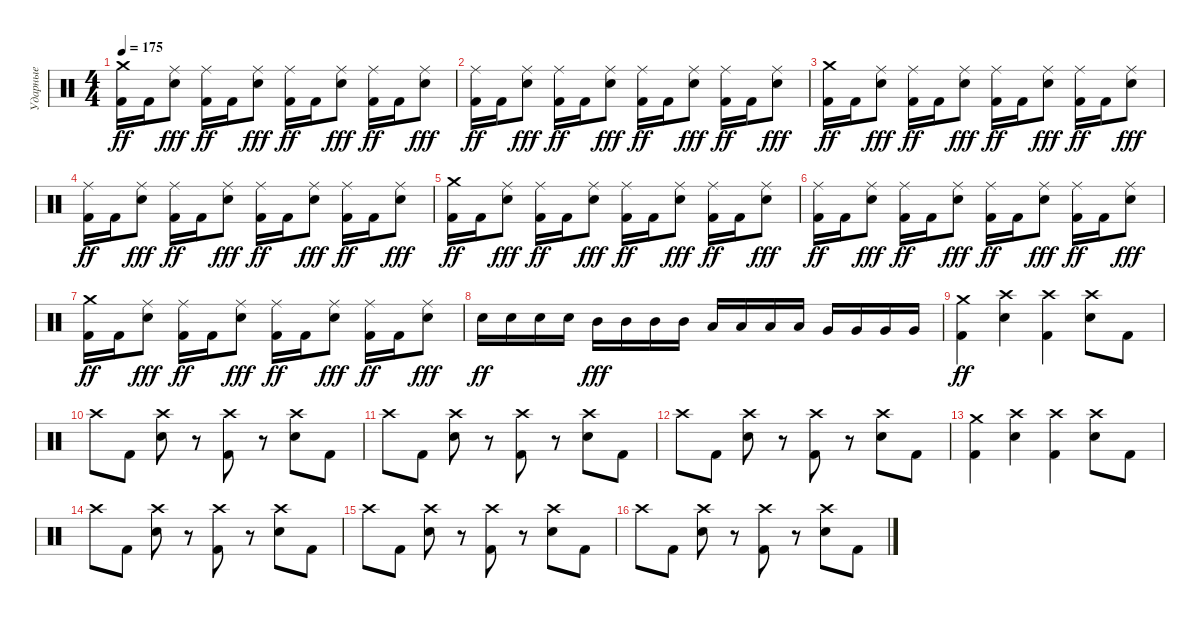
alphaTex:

\track ("Ударные" "Ударные") {instrument percussion}
\staff {score}
\articulation defaults
\ts (4 4)
\tempo 175
\clef neutral
\ks c
("Kick (hit) 2" "Crash medium (hit)").16{dy ff} "Kick (hit) 2".16 ("Electric Snare (hit)" "Ride (middle)").8{dy fff} ("Kick (hit) 2" "Ride (middle)").16{dy ff} "Kick (hit) 2".16 ("Electric Snare (hit)" "Ride (middle)").8{dy fff} ("Kick (hit) 2" "Ride (middle)").16{dy ff} "Kick (hit) 2".16 ("Electric Snare (hit)" "Ride (middle)").8{dy fff} ("Kick (hit) 2" "Ride (middle)").16{dy ff} "Kick (hit) 2".16 ("Electric Snare (hit)" "Ride (middle)").8{dy fff} |
("Kick (hit) 2" "Ride (middle)").16{dy ff} "Kick (hit) 2".16 ("Electric Snare (hit)" "Ride (middle)").8{dy fff} ("Kick (hit) 2" "Ride (middle)").16{dy ff} "Kick (hit) 2".16 ("Electric Snare (hit)" "Ride (middle)").8{dy fff} ("Kick (hit) 2" "Ride (middle)").16{dy ff} "Kick (hit) 2".16 ("Electric Snare (hit)" "Ride (middle)").8{dy fff} ("Kick (hit) 2" "Ride (middle)").16{dy ff} "Kick (hit) 2".16 ("Electric Snare (hit)" "Ride (middle)").8{dy fff} |
("Kick (hit) 2" "Crash medium (hit)").16{dy ff} "Kick (hit) 2".16 ("Electric Snare (hit)" "Ride (middle)").8{dy fff} ("Kick (hit) 2" "Ride (middle)").16{dy ff} "Kick (hit) 2".16 ("Electric Snare (hit)" "Ride (middle)").8{dy fff} ("Kick (hit) 2" "Ride (middle)").16{dy ff} "Kick (hit) 2".16 ("Electric Snare (hit)" "Ride (middle)").8{dy fff} ("Kick (hit) 2" "Ride (middle)").16{dy ff} "Kick (hit) 2".16 ("Electric Snare (hit)" "Ride (middle)").8{dy fff} |
("Kick (hit) 2" "Ride (middle)").16{dy ff} "Kick (hit) 2".16 ("Electric Snare (hit)" "Ride (middle)").8{dy fff} ("Kick (hit) 2" "Ride (middle)").16{dy ff} "Kick (hit) 2".16 ("Electric Snare (hit)" "Ride (middle)").8{dy fff} ("Kick (hit) 2" "Ride (middle)").16{dy ff} "Kick (hit) 2".16 ("Electric Snare (hit)" "Ride (middle)").8{dy fff} ("Kick (hit) 2" "Ride (middle)").16{dy ff} "Kick (hit) 2".16 ("Electric Snare (hit)" "Ride (middle)").8{dy fff} |
("Kick (hit) 2" "Crash medium (hit)").16{dy ff} "Kick (hit) 2".16 ("Electric Snare (hit)" "Ride (middle)").8{dy fff} ("Kick (hit) 2" "Ride (middle)").16{dy ff} "Kick (hit) 2".16 ("Electric Snare (hit)" "Ride (middle)").8{dy fff} ("Kick (hit) 2" "Ride (middle)").16{dy ff} "Kick (hit) 2".16 ("Electric Snare (hit)" "Ride (middle)").8{dy fff} ("Kick (hit) 2" "Ride (middle)").16{dy ff} "Kick (hit) 2".16 ("Electric Snare (hit)" "Ride (middle)").8{dy fff} |
("Kick (hit) 2" "Ride (middle)").16{dy ff} "Kick (hit) 2".16 ("Electric Snare (hit)" "Ride (middle)").8{dy fff} ("Kick (hit) 2" "Ride (middle)").16{dy ff} "Kick (hit) 2".16 ("Electric Snare (hit)" "Ride (middle)").8{dy fff} ("Kick (hit) 2" "Ride (middle)").16{dy ff} "Kick (hit) 2".16 ("Electric Snare (hit)" "Ride (middle)").8{dy fff} ("Kick (hit) 2" "Ride (middle)").16{dy ff} "Kick (hit) 2".16 ("Electric Snare (hit)" "Ride (middle)").8{dy fff} |
("Kick (hit) 2" "Crash medium (hit)").16{dy ff} "Kick (hit) 2".16 ("Electric Snare (hit)" "Ride (middle)").8{dy fff} ("Kick (hit) 2" "Ride (middle)").16{dy ff} "Kick (hit) 2".16 ("Electric Snare (hit)" "Ride (middle)").8{dy fff} ("Kick (hit) 2" "Ride (middle)").16{dy ff} "Kick (hit) 2".16 ("Electric Snare (hit)" "Ride (middle)").8{dy fff} ("Kick (hit) 2" "Ride (middle)").16{dy ff} "Kick (hit) 2".16 ("Electric Snare (hit)" "Ride (middle)").8{dy fff} |
"Electric Snare (hit)".16{dy ff} "Electric Snare (hit)".16 "Electric Snare (hit)".16 "Electric Snare (hit)".16 "Mid Tom (hit)".16{dy fff} "Mid Tom (hit)".16 "Mid Tom (hit)".16 "Mid Tom (hit)".16 "Low Tom (hit)".16 "Low Tom (hit)".16 "Low Tom (hit)".16 "Low Tom (hit)".16 "Very Low Tom (hit)".16 "Very Low Tom (hit)".16 "Very Low Tom (hit)".16 "Very Low Tom (hit)".16 |
("Kick (hit) 2" "Crash medium (hit)").4{dy ff} ("Electric Snare (hit)" "Crash high (hit)").4 ("Kick (hit) 2" "Crash high (hit)").4 ("Electric Snare (hit)" "Crash high (hit)").8 "Kick (hit) 2".8 |
"Crash high (hit)".8 "Kick (hit) 2".8 ("Electric Snare (hit)" "Crash high (hit)").8 r.8 ("Kick (hit) 2" "Crash high (hit)").8 r.8 ("Electric Snare (hit)" "Crash high (hit)").8 "Kick (hit) 2".8 |
"Crash high (hit)".8 "Kick (hit) 2".8 ("Electric Snare (hit)" "Crash high (hit)").8 r.8 ("Kick (hit) 2" "Crash high (hit)").8 r.8 ("Electric Snare (hit)" "Crash high (hit)").8 "Kick (hit) 2".8 |
"Crash high (hit)".8 "Kick (hit) 2".8 ("Electric Snare (hit)" "Crash high (hit)").8 r.8 ("Kick (hit) 2" "Crash high (hit)").8 r.8 ("Electric Snare (hit)" "Crash high (hit)").8 "Kick (hit) 2".8 |
("Kick (hit) 2" "Crash medium (hit)").4 ("Electric Snare (hit)" "Crash high (hit)").4 ("Kick (hit) 2" "Crash high (hit)").4 ("Electric Snare (hit)" "Crash high (hit)").8 "Kick (hit) 2".8 |
"Crash high (hit)".8 "Kick (hit) 2".8 ("Electric Snare (hit)" "Crash high (hit)").8 r.8 ("Kick (hit) 2" "Crash high (hit)").8 r.8 ("Electric Snare (hit)" "Crash high (hit)").8 "Kick (hit) 2".8 |
"Crash high (hit)".8 "Kick (hit) 2".8 ("Electric Snare (hit)" "Crash high (hit)").8 r.8 ("Kick (hit) 2" "Crash high (hit)").8 r.8 ("Electric Snare (hit)" "Crash high (hit)").8 "Kick (hit) 2".8 |
"Crash high (hit)".8 "Kick (hit) 2".8 ("Electric Snare (hit)" "Crash high (hit)").8 r.8 ("Kick (hit) 2" "Crash high (hit)").8 r.8 ("Electric Snare (hit)" "Crash high (hit)").8 "Kick (hit) 2".8
